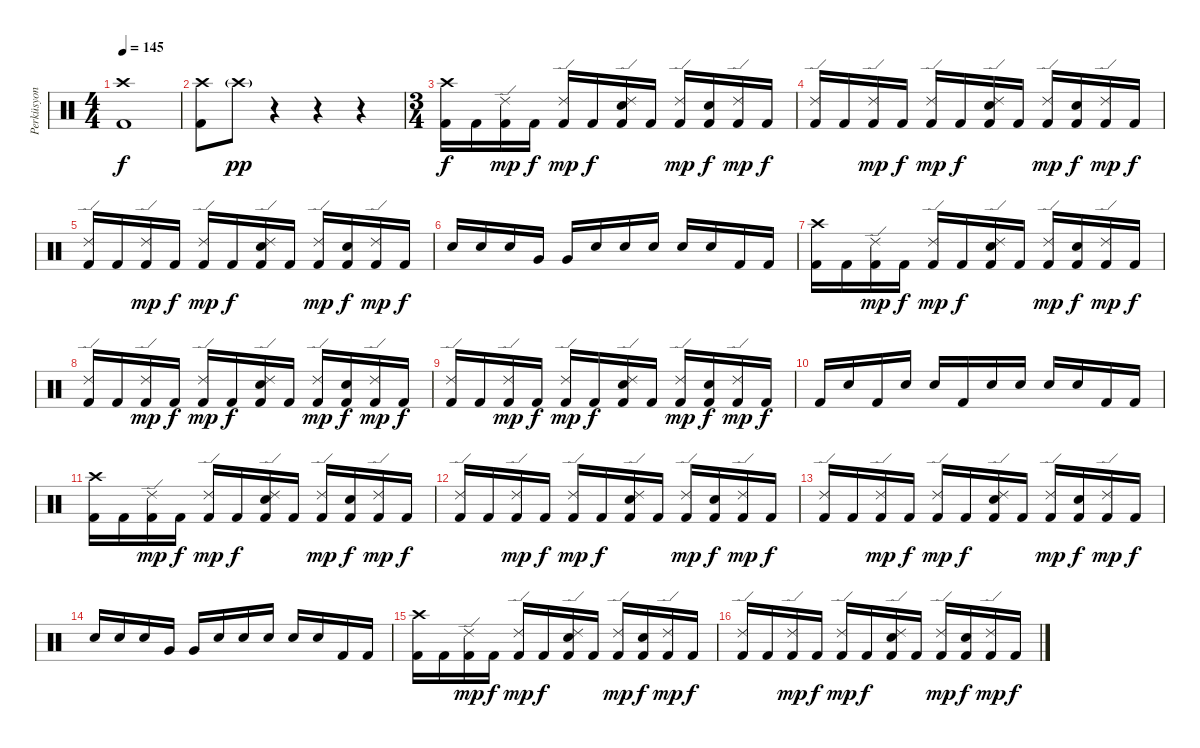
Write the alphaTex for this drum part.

\track ("Perküsyon" "Perküsyon") {instrument percussion}
\staff {score}
\articulation defaults
\ts (4 4)
\tempo 145
\clef neutral
\ks c
("Crash high (hit)" "Kick (hit) 2").1{dy f} |
("Crash high (hit)" "Kick (hit) 2").8 "Crash high (hit)"{g}.8{dy pp} r.4 r.4 r.4 |
\ts (3 4)
("Crash high (hit)" "Kick (hit) 2").16{dy f} "Kick (hit) 2".16 ("Ride (edge) 2" "Kick (hit) 2").16{dy mp} "Kick (hit) 2".16{dy f} ("Ride (edge) 2" "Kick (hit) 2").16{dy mp} "Kick (hit) 2".16{dy f} ("Ride (edge) 2" "Snare (hit) 2" "Kick (hit) 2").16 "Kick (hit) 2".16 ("Ride (edge) 2" "Kick (hit) 2").16{dy mp} ("Snare (hit) 2" "Kick (hit) 2").16{dy f} ("Ride (edge) 2" "Kick (hit) 2").16{dy mp} "Kick (hit) 2".16{dy f} |
("Ride (edge) 2" "Kick (hit) 2").16 "Kick (hit) 2".16 ("Ride (edge) 2" "Kick (hit) 2").16{dy mp} "Kick (hit) 2".16{dy f} ("Ride (edge) 2" "Kick (hit) 2").16{dy mp} "Kick (hit) 2".16{dy f} ("Ride (edge) 2" "Snare (hit) 2" "Kick (hit) 2").16 "Kick (hit) 2".16 ("Ride (edge) 2" "Kick (hit) 2").16{dy mp} ("Snare (hit) 2" "Kick (hit) 2").16{dy f} ("Ride (edge) 2" "Kick (hit) 2").16{dy mp} "Kick (hit) 2".16{dy f} |
("Ride (edge) 2" "Kick (hit) 2").16 "Kick (hit) 2".16 ("Ride (edge) 2" "Kick (hit) 2").16{dy mp} "Kick (hit) 2".16{dy f} ("Ride (edge) 2" "Kick (hit) 2").16{dy mp} "Kick (hit) 2".16{dy f} ("Ride (edge) 2" "Snare (hit) 2" "Kick (hit) 2").16 "Kick (hit) 2".16 ("Ride (edge) 2" "Kick (hit) 2").16{dy mp} ("Snare (hit) 2" "Kick (hit) 2").16{dy f} ("Ride (edge) 2" "Kick (hit) 2").16{dy mp} "Kick (hit) 2".16{dy f} |
"Snare (hit) 2".16 "Snare (hit) 2".16 "Snare (hit) 2".16 "Very Low Tom (hit)".16 "Very Low Tom (hit)".16 "Snare (hit) 2".16 "Snare (hit) 2".16 "Snare (hit) 2".16 "Snare (hit) 2".16 "Snare (hit) 2".16 "Kick (hit) 2".16 "Kick (hit) 2".16 |
("Crash high (hit)" "Kick (hit) 2").16 "Kick (hit) 2".16 ("Ride (edge) 2" "Kick (hit) 2").16{dy mp} "Kick (hit) 2".16{dy f} ("Ride (edge) 2" "Kick (hit) 2").16{dy mp} "Kick (hit) 2".16{dy f} ("Ride (edge) 2" "Snare (hit) 2" "Kick (hit) 2").16 "Kick (hit) 2".16 ("Ride (edge) 2" "Kick (hit) 2").16{dy mp} ("Snare (hit) 2" "Kick (hit) 2").16{dy f} ("Ride (edge) 2" "Kick (hit) 2").16{dy mp} "Kick (hit) 2".16{dy f} |
("Ride (edge) 2" "Kick (hit) 2").16 "Kick (hit) 2".16 ("Ride (edge) 2" "Kick (hit) 2").16{dy mp} "Kick (hit) 2".16{dy f} ("Ride (edge) 2" "Kick (hit) 2").16{dy mp} "Kick (hit) 2".16{dy f} ("Ride (edge) 2" "Snare (hit) 2" "Kick (hit) 2").16 "Kick (hit) 2".16 ("Ride (edge) 2" "Kick (hit) 2").16{dy mp} ("Snare (hit) 2" "Kick (hit) 2").16{dy f} ("Ride (edge) 2" "Kick (hit) 2").16{dy mp} "Kick (hit) 2".16{dy f} |
("Ride (edge) 2" "Kick (hit) 2").16 "Kick (hit) 2".16 ("Ride (edge) 2" "Kick (hit) 2").16{dy mp} "Kick (hit) 2".16{dy f} ("Ride (edge) 2" "Kick (hit) 2").16{dy mp} "Kick (hit) 2".16{dy f} ("Ride (edge) 2" "Snare (hit) 2" "Kick (hit) 2").16 "Kick (hit) 2".16 ("Ride (edge) 2" "Kick (hit) 2").16{dy mp} ("Snare (hit) 2" "Kick (hit) 2").16{dy f} ("Ride (edge) 2" "Kick (hit) 2").16{dy mp} "Kick (hit) 2".16{dy f} |
"Kick (hit) 2".16 "Snare (hit) 2".16 "Kick (hit) 2".16 "Snare (hit) 2".16 "Snare (hit) 2".16 "Kick (hit) 2".16 "Snare (hit) 2".16 "Snare (hit) 2".16 "Snare (hit) 2".16 "Snare (hit) 2".16 "Kick (hit) 2".16 "Kick (hit) 2".16 |
("Crash high (hit)" "Kick (hit) 2").16 "Kick (hit) 2".16 ("Ride (edge) 2" "Kick (hit) 2").16{dy mp} "Kick (hit) 2".16{dy f} ("Ride (edge) 2" "Kick (hit) 2").16{dy mp} "Kick (hit) 2".16{dy f} ("Ride (edge) 2" "Snare (hit) 2" "Kick (hit) 2").16 "Kick (hit) 2".16 ("Ride (edge) 2" "Kick (hit) 2").16{dy mp} ("Snare (hit) 2" "Kick (hit) 2").16{dy f} ("Ride (edge) 2" "Kick (hit) 2").16{dy mp} "Kick (hit) 2".16{dy f} |
("Ride (edge) 2" "Kick (hit) 2").16 "Kick (hit) 2".16 ("Ride (edge) 2" "Kick (hit) 2").16{dy mp} "Kick (hit) 2".16{dy f} ("Ride (edge) 2" "Kick (hit) 2").16{dy mp} "Kick (hit) 2".16{dy f} ("Ride (edge) 2" "Snare (hit) 2" "Kick (hit) 2").16 "Kick (hit) 2".16 ("Ride (edge) 2" "Kick (hit) 2").16{dy mp} ("Snare (hit) 2" "Kick (hit) 2").16{dy f} ("Ride (edge) 2" "Kick (hit) 2").16{dy mp} "Kick (hit) 2".16{dy f} |
("Ride (edge) 2" "Kick (hit) 2").16 "Kick (hit) 2".16 ("Ride (edge) 2" "Kick (hit) 2").16{dy mp} "Kick (hit) 2".16{dy f} ("Ride (edge) 2" "Kick (hit) 2").16{dy mp} "Kick (hit) 2".16{dy f} ("Ride (edge) 2" "Snare (hit) 2" "Kick (hit) 2").16 "Kick (hit) 2".16 ("Ride (edge) 2" "Kick (hit) 2").16{dy mp} ("Snare (hit) 2" "Kick (hit) 2").16{dy f} ("Ride (edge) 2" "Kick (hit) 2").16{dy mp} "Kick (hit) 2".16{dy f} |
"Snare (hit) 2".16 "Snare (hit) 2".16 "Snare (hit) 2".16 "Very Low Tom (hit)".16 "Very Low Tom (hit)".16 "Snare (hit) 2".16 "Snare (hit) 2".16 "Snare (hit) 2".16 "Snare (hit) 2".16 "Snare (hit) 2".16 "Kick (hit) 2".16 "Kick (hit) 2".16 |
("Crash high (hit)" "Kick (hit) 2").16 "Kick (hit) 2".16 ("Ride (edge) 2" "Kick (hit) 2").16{dy mp} "Kick (hit) 2".16{dy f} ("Ride (edge) 2" "Kick (hit) 2").16{dy mp} "Kick (hit) 2".16{dy f} ("Ride (edge) 2" "Snare (hit) 2" "Kick (hit) 2").16 "Kick (hit) 2".16 ("Ride (edge) 2" "Kick (hit) 2").16{dy mp} ("Snare (hit) 2" "Kick (hit) 2").16{dy f} ("Ride (edge) 2" "Kick (hit) 2").16{dy mp} "Kick (hit) 2".16{dy f} |
("Ride (edge) 2" "Kick (hit) 2").16 "Kick (hit) 2".16 ("Ride (edge) 2" "Kick (hit) 2").16{dy mp} "Kick (hit) 2".16{dy f} ("Ride (edge) 2" "Kick (hit) 2").16{dy mp} "Kick (hit) 2".16{dy f} ("Ride (edge) 2" "Snare (hit) 2" "Kick (hit) 2").16 "Kick (hit) 2".16 ("Ride (edge) 2" "Kick (hit) 2").16{dy mp} ("Snare (hit) 2" "Kick (hit) 2").16{dy f} ("Ride (edge) 2" "Kick (hit) 2").16{dy mp} "Kick (hit) 2".16{dy f}
